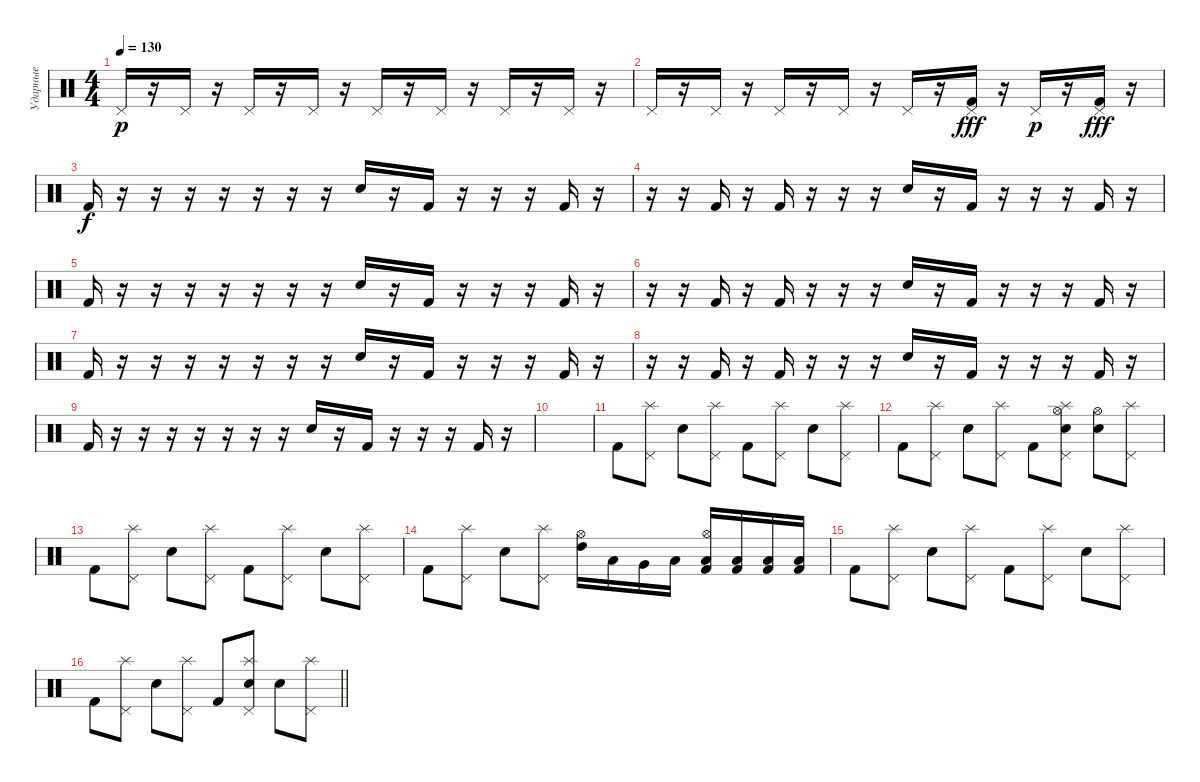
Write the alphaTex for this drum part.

\track ("Ударные" "Ударные") {instrument percussion}
\staff {score}
\articulation defaults
\ts (4 4)
\tempo 130
\clef neutral
\ks c "Pedal Hi-Hat (hit)".16{dy p}
r.16 "Pedal Hi-Hat (hit)".16 r.16 "Pedal Hi-Hat (hit)".16 r.16 "Pedal Hi-Hat (hit)".16 r.16 "Pedal Hi-Hat (hit)".16 r.16 "Pedal Hi-Hat (hit)".16 r.16 "Pedal Hi-Hat (hit)".16 r.16 "Pedal Hi-Hat (hit)".16 r.16 |
"Pedal Hi-Hat (hit)".16 r.16 "Pedal Hi-Hat (hit)".16 r.16 "Pedal Hi-Hat (hit)".16 r.16 "Pedal Hi-Hat (hit)".16 r.16 "Pedal Hi-Hat (hit)".16 r.16 ("Pedal Hi-Hat (hit)" "Kick (hit) 2").16{dy fff} r.16 "Pedal Hi-Hat (hit)".16{dy p} r.16 ("Pedal Hi-Hat (hit)" "Kick (hit) 2").16{dy fff} r.16 |
"Kick (hit) 2".16{dy f} r.16 r.16 r.16 r.16 r.16 r.16 r.16 "Snare (hit) 2".16 r.16 "Kick (hit) 2".16 r.16 r.16 r.16 "Kick (hit) 2".16 r.16 |
r.16 r.16 "Kick (hit) 2".16 r.16 "Kick (hit) 2".16 r.16 r.16 r.16 "Snare (hit) 2".16 r.16 "Kick (hit) 2".16 r.16 r.16 r.16 "Kick (hit) 2".16 r.16 |
"Kick (hit) 2".16 r.16 r.16 r.16 r.16 r.16 r.16 r.16 "Snare (hit) 2".16 r.16 "Kick (hit) 2".16 r.16 r.16 r.16 "Kick (hit) 2".16 r.16 |
r.16 r.16 "Kick (hit) 2".16 r.16 "Kick (hit) 2".16 r.16 r.16 r.16 "Snare (hit) 2".16 r.16 "Kick (hit) 2".16 r.16 r.16 r.16 "Kick (hit) 2".16 r.16 |
"Kick (hit) 2".16 r.16 r.16 r.16 r.16 r.16 r.16 r.16 "Snare (hit) 2".16 r.16 "Kick (hit) 2".16 r.16 r.16 r.16 "Kick (hit) 2".16 r.16 |
r.16 r.16 "Kick (hit) 2".16 r.16 "Kick (hit) 2".16 r.16 r.16 r.16 "Snare (hit) 2".16 r.16 "Kick (hit) 2".16 r.16 r.16 r.16 "Kick (hit) 2".16 r.16 |
"Kick (hit) 2".16 r.16 r.16 r.16 r.16 r.16 r.16 r.16 "Snare (hit) 2".16 r.16 "Kick (hit) 2".16 r.16 r.16 r.16 "Kick (hit) 2".16 r.16 |
|
"Kick (hit) 2".8 ("Pedal Hi-Hat (hit)" "Splash (hit)").8 "Electric Snare (hit)".8 ("Pedal Hi-Hat (hit)" "Splash (hit)").8 "Kick (hit) 2".8 ("Pedal Hi-Hat (hit)" "Splash (hit)").8 "Electric Snare (hit)".8 ("Pedal Hi-Hat (hit)" "Splash (hit)").8 |
"Kick (hit) 2".8 ("Splash (hit)" "Pedal Hi-Hat (hit)").8 "Electric Snare (hit)".8 ("Splash (hit)" "Pedal Hi-Hat (hit)").8 "Kick (hit) 2".8 ("Splash (hit)" "Pedal Hi-Hat (hit)" "Hi-Hat (open)" "Electric Snare (hit)").8 ("Hi-Hat (open)" "Electric Snare (hit)").8 ("Splash (hit)" "Pedal Hi-Hat (hit)").8 |
"Kick (hit) 2".8 ("Pedal Hi-Hat (hit)" "Splash (hit)").8 "Electric Snare (hit)".8 ("Pedal Hi-Hat (hit)" "Splash (hit)").8 "Kick (hit) 2".8 ("Pedal Hi-Hat (hit)" "Splash (hit)").8 "Electric Snare (hit)".8 ("Pedal Hi-Hat (hit)" "Splash (hit)").8 |
"Kick (hit) 2".8 ("Splash (hit)" "Pedal Hi-Hat (hit)").8 "Electric Snare (hit)".8 ("Splash (hit)" "Pedal Hi-Hat (hit)").8 ("Hi-Hat (open)" "High Tom (hit)").16 "Low Tom (hit)".16 "Very Low Tom (hit)".16 "Low Floor Tom (hit)".16 ("Hi-Hat (open)" "Low Floor Tom (hit)" "Kick (hit) 2").16 ("Low Floor Tom (hit)" "Kick (hit) 2").16 ("Low Floor Tom (hit)" "Kick (hit) 2").16 ("Low Floor Tom (hit)" "Kick (hit) 2").16 |
"Kick (hit) 2".8 ("Pedal Hi-Hat (hit)" "Splash (hit)").8 "Electric Snare (hit)".8 ("Pedal Hi-Hat (hit)" "Splash (hit)").8 "Kick (hit) 2".8 ("Pedal Hi-Hat (hit)" "Splash (hit)").8 "Electric Snare (hit)".8 ("Pedal Hi-Hat (hit)" "Splash (hit)").8 |
\barLineRight lightlight "Kick (hit) 2".8
("Splash (hit)" "Pedal Hi-Hat (hit)").8 "Electric Snare (hit)".8 ("Splash (hit)" "Pedal Hi-Hat (hit)").8 "Kick (hit) 2".8 ("Splash (hit)" "Pedal Hi-Hat (hit)" "Electric Snare (hit)").8 "Electric Snare (hit)".8 ("Splash (hit)" "Pedal Hi-Hat (hit)").8
